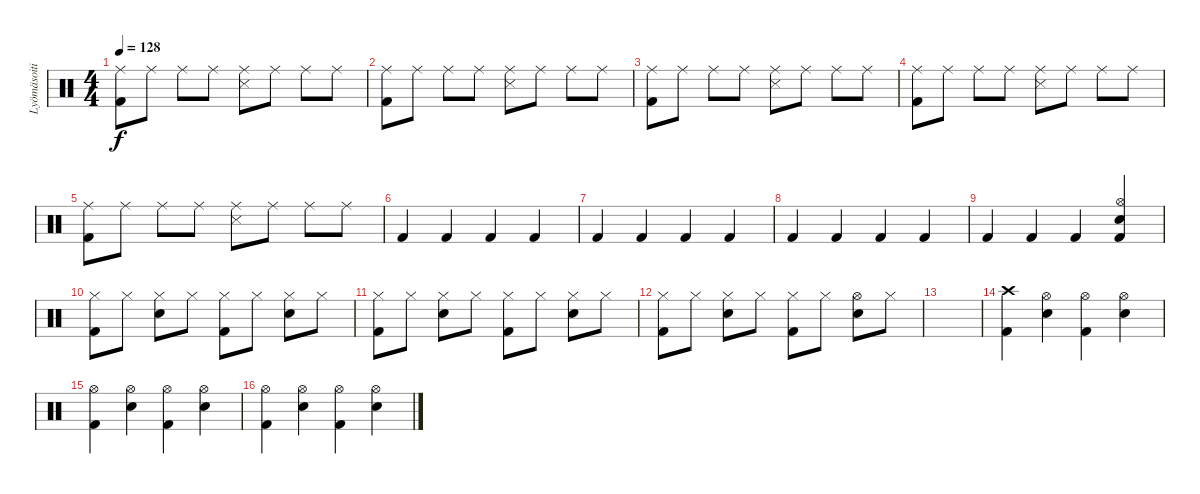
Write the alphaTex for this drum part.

\track ("Lyömäsoitin" "Lyömäsoiti") {instrument percussion}
\staff {score}
\articulation defaults
\ts (4 4)
\tempo 128
\clef neutral
\ks c
("Ride (middle)" "Kick (hit) 2").8{dy f} "Ride (middle)".8 "Ride (middle)".8 "Ride (middle)".8 ("Ride (middle)" "Snare (side stick) 3").8 "Ride (middle)".8 "Ride (middle)".8 "Ride (middle)".8 |
("Ride (middle)" "Kick (hit) 2").8 "Ride (middle)".8 "Ride (middle)".8 "Ride (middle)".8 ("Ride (middle)" "Snare (side stick) 3").8 "Ride (middle)".8 "Ride (middle)".8 "Ride (middle)".8 |
("Ride (middle)" "Kick (hit) 2").8 "Ride (middle)".8 "Ride (middle)".8 "Ride (middle)".8 ("Ride (middle)" "Snare (side stick) 3").8 "Ride (middle)".8 "Ride (middle)".8 "Ride (middle)".8 |
("Ride (middle)" "Kick (hit) 2").8 "Ride (middle)".8 "Ride (middle)".8 "Ride (middle)".8 ("Ride (middle)" "Snare (side stick) 3").8 "Ride (middle)".8 "Ride (middle)".8 "Ride (middle)".8 |
("Ride (middle)" "Kick (hit) 2").8 "Ride (middle)".8 "Ride (middle)".8 "Ride (middle)".8 ("Ride (middle)" "Snare (side stick) 3").8 "Ride (middle)".8 "Ride (middle)".8 "Ride (middle)".8 |
"Kick (hit) 2".4 "Kick (hit) 2".4 "Kick (hit) 2".4 "Kick (hit) 2".4 |
"Kick (hit) 2".4 "Kick (hit) 2".4 "Kick (hit) 2".4 "Kick (hit) 2".4 |
"Kick (hit) 2".4 "Kick (hit) 2".4 "Kick (hit) 2".4 "Kick (hit) 2".4 |
"Kick (hit) 2".4 "Kick (hit) 2".4 "Kick (hit) 2".4 ("Hi-Hat (open)" "Electric Snare (hit)" "Kick (hit) 2").4 |
("Hi-Hat (closed)" "Kick (hit) 2").8 "Hi-Hat (closed)".8 ("Hi-Hat (closed)" "Electric Snare (hit)").8 "Hi-Hat (closed)".8 ("Hi-Hat (closed)" "Kick (hit) 2").8 "Hi-Hat (closed)".8 ("Hi-Hat (closed)" "Electric Snare (hit)").8 "Hi-Hat (closed)".8 |
("Hi-Hat (closed)" "Kick (hit) 2").8 "Hi-Hat (closed)".8 ("Hi-Hat (closed)" "Electric Snare (hit)").8 "Hi-Hat (closed)".8 ("Hi-Hat (closed)" "Kick (hit) 2").8 "Hi-Hat (closed)".8 ("Hi-Hat (closed)" "Electric Snare (hit)").8 "Hi-Hat (closed)".8 |
("Hi-Hat (closed)" "Kick (hit) 2").8 "Hi-Hat (closed)".8 ("Hi-Hat (closed)" "Electric Snare (hit)").8 "Hi-Hat (closed)".8 ("Hi-Hat (closed)" "Kick (hit) 2").8 "Hi-Hat (closed)".8 ("Hi-Hat (open)" "Electric Snare (hit)").8 "Hi-Hat (closed)".8 |
|
("Crash high (hit)" "Kick (hit) 2").4 ("Hi-Hat (open)" "Electric Snare (hit)").4 ("Hi-Hat (open)" "Kick (hit) 2").4 ("Hi-Hat (open)" "Electric Snare (hit)").4 |
("Hi-Hat (open)" "Kick (hit) 2").4 ("Hi-Hat (open)" "Electric Snare (hit)").4 ("Hi-Hat (open)" "Kick (hit) 2").4 ("Hi-Hat (open)" "Electric Snare (hit)").4 |
("Hi-Hat (open)" "Kick (hit) 2").4 ("Hi-Hat (open)" "Electric Snare (hit)").4 ("Hi-Hat (open)" "Kick (hit) 2").4 ("Hi-Hat (open)" "Electric Snare (hit)").4
